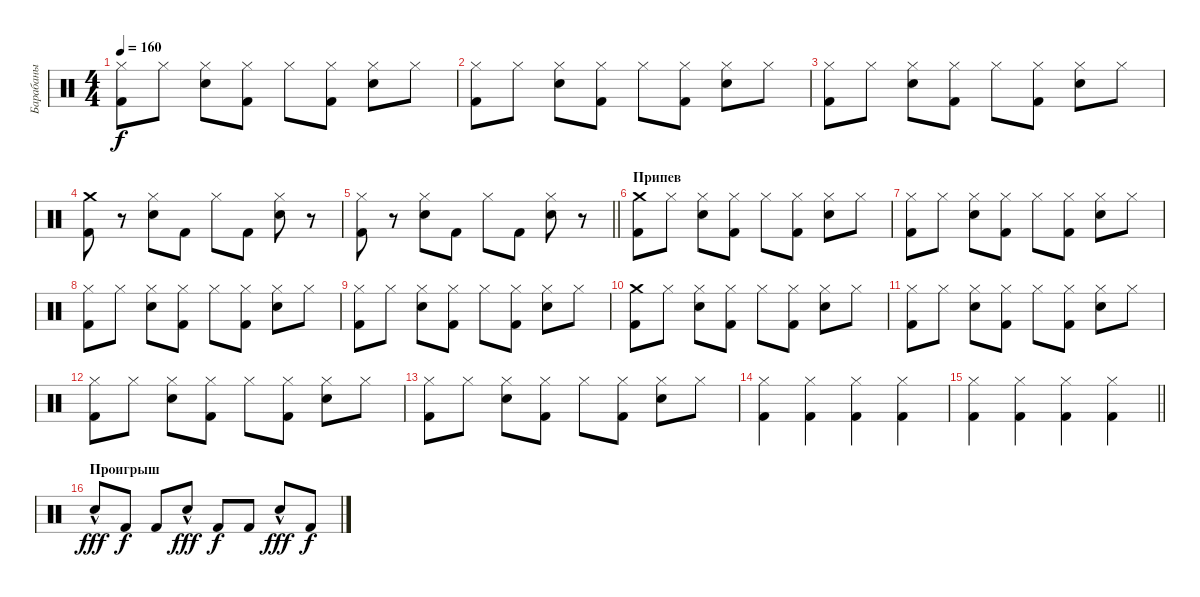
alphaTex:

\track ("Барабаны" "Барабаны") {instrument percussion}
\staff {score}
\articulation defaults
\ts (4 4)
\tempo 160
\clef neutral
\ks c
("Hi-Hat (closed)" "Kick (hit) 2").8{dy f} "Hi-Hat (closed)".8 ("Hi-Hat (closed)" "Snare (hit) 2").8 ("Hi-Hat (closed)" "Kick (hit) 2").8 "Hi-Hat (closed)".8 ("Hi-Hat (closed)" "Kick (hit) 2").8 ("Hi-Hat (closed)" "Snare (hit) 2").8 "Hi-Hat (closed)".8 |
("Hi-Hat (closed)" "Kick (hit) 2").8 "Hi-Hat (closed)".8 ("Hi-Hat (closed)" "Snare (hit) 2").8 ("Hi-Hat (closed)" "Kick (hit) 2").8 "Hi-Hat (closed)".8 ("Hi-Hat (closed)" "Kick (hit) 2").8 ("Hi-Hat (closed)" "Snare (hit) 2").8 "Hi-Hat (closed)".8 |
("Hi-Hat (closed)" "Kick (hit) 2").8 "Hi-Hat (closed)".8 ("Hi-Hat (closed)" "Snare (hit) 2").8 ("Hi-Hat (closed)" "Kick (hit) 2").8 "Hi-Hat (closed)".8 ("Hi-Hat (closed)" "Kick (hit) 2").8 ("Hi-Hat (closed)" "Snare (hit) 2").8 "Hi-Hat (closed)".8 |
("Crash medium (hit)" "Kick (hit) 2").8 r.8 ("Hi-Hat (closed)" "Snare (hit) 2").8 "Kick (hit) 2".8 "Hi-Hat (closed)".8 "Kick (hit) 2".8 ("Hi-Hat (closed)" "Snare (hit) 2").8 r.8 |
\barLineRight lightlight
("Hi-Hat (closed)" "Kick (hit) 2").8 r.8 ("Hi-Hat (closed)" "Snare (hit) 2").8 "Kick (hit) 2".8 "Hi-Hat (closed)".8 "Kick (hit) 2".8 ("Hi-Hat (closed)" "Snare (hit) 2").8 r.8 |
\section ("" "Припев")
("Crash medium (hit)" "Kick (hit) 2").8 "Hi-Hat (closed)".8 ("Hi-Hat (closed)" "Snare (hit) 2").8 ("Hi-Hat (closed)" "Kick (hit) 2").8 "Hi-Hat (closed)".8 ("Hi-Hat (closed)" "Kick (hit) 2").8 ("Hi-Hat (closed)" "Snare (hit) 2").8 "Hi-Hat (closed)".8 |
("Hi-Hat (closed)" "Kick (hit) 2").8 "Hi-Hat (closed)".8 ("Hi-Hat (closed)" "Snare (hit) 2").8 ("Hi-Hat (closed)" "Kick (hit) 2").8 "Hi-Hat (closed)".8 ("Hi-Hat (closed)" "Kick (hit) 2").8 ("Hi-Hat (closed)" "Snare (hit) 2").8 "Hi-Hat (closed)".8 |
("Hi-Hat (closed)" "Kick (hit) 2").8 "Hi-Hat (closed)".8 ("Hi-Hat (closed)" "Snare (hit) 2").8 ("Hi-Hat (closed)" "Kick (hit) 2").8 "Hi-Hat (closed)".8 ("Hi-Hat (closed)" "Kick (hit) 2").8 ("Hi-Hat (closed)" "Snare (hit) 2").8 "Hi-Hat (closed)".8 |
("Hi-Hat (closed)" "Kick (hit) 2").8 "Hi-Hat (closed)".8 ("Hi-Hat (closed)" "Snare (hit) 2").8 ("Hi-Hat (closed)" "Kick (hit) 2").8 "Hi-Hat (closed)".8 ("Hi-Hat (closed)" "Kick (hit) 2").8 ("Hi-Hat (closed)" "Snare (hit) 2").8 "Hi-Hat (closed)".8 |
("Crash medium (hit)" "Kick (hit) 2").8 "Hi-Hat (closed)".8 ("Hi-Hat (closed)" "Snare (hit) 2").8 ("Hi-Hat (closed)" "Kick (hit) 2").8 "Hi-Hat (closed)".8 ("Hi-Hat (closed)" "Kick (hit) 2").8 ("Hi-Hat (closed)" "Snare (hit) 2").8 "Hi-Hat (closed)".8 |
("Hi-Hat (closed)" "Kick (hit) 2").8 "Hi-Hat (closed)".8 ("Hi-Hat (closed)" "Snare (hit) 2").8 ("Hi-Hat (closed)" "Kick (hit) 2").8 "Hi-Hat (closed)".8 ("Hi-Hat (closed)" "Kick (hit) 2").8 ("Hi-Hat (closed)" "Snare (hit) 2").8 "Hi-Hat (closed)".8 |
("Hi-Hat (closed)" "Kick (hit) 2").8 "Hi-Hat (closed)".8 ("Hi-Hat (closed)" "Snare (hit) 2").8 ("Hi-Hat (closed)" "Kick (hit) 2").8 "Hi-Hat (closed)".8 ("Hi-Hat (closed)" "Kick (hit) 2").8 ("Hi-Hat (closed)" "Snare (hit) 2").8 "Hi-Hat (closed)".8 |
("Hi-Hat (closed)" "Kick (hit) 2").8 "Hi-Hat (closed)".8 ("Hi-Hat (closed)" "Snare (hit) 2").8 ("Hi-Hat (closed)" "Kick (hit) 2").8 "Hi-Hat (closed)".8 ("Hi-Hat (closed)" "Kick (hit) 2").8 ("Hi-Hat (closed)" "Snare (hit) 2").8 "Hi-Hat (closed)".8 |
("Hi-Hat (closed)" "Kick (hit) 2").4 ("Hi-Hat (closed)" "Kick (hit) 2").4 ("Hi-Hat (closed)" "Kick (hit) 2").4 ("Hi-Hat (closed)" "Kick (hit) 2").4 |
\barLineRight lightlight
("Hi-Hat (closed)" "Kick (hit) 2").4 ("Hi-Hat (closed)" "Kick (hit) 2").4 ("Hi-Hat (closed)" "Kick (hit) 2").4 ("Hi-Hat (closed)" "Kick (hit) 2").4 |
\section ("" "Проигрыш")
"Snare (hit) 2"{hac}.8{dy fff} "Kick (hit) 2".8{dy f} "Kick (hit) 2".8 "Snare (hit) 2"{hac}.8{dy fff} "Kick (hit) 2".8{dy f} "Kick (hit) 2".8 "Snare (hit) 2"{hac}.8{dy fff} "Kick (hit) 2".8{dy f}
